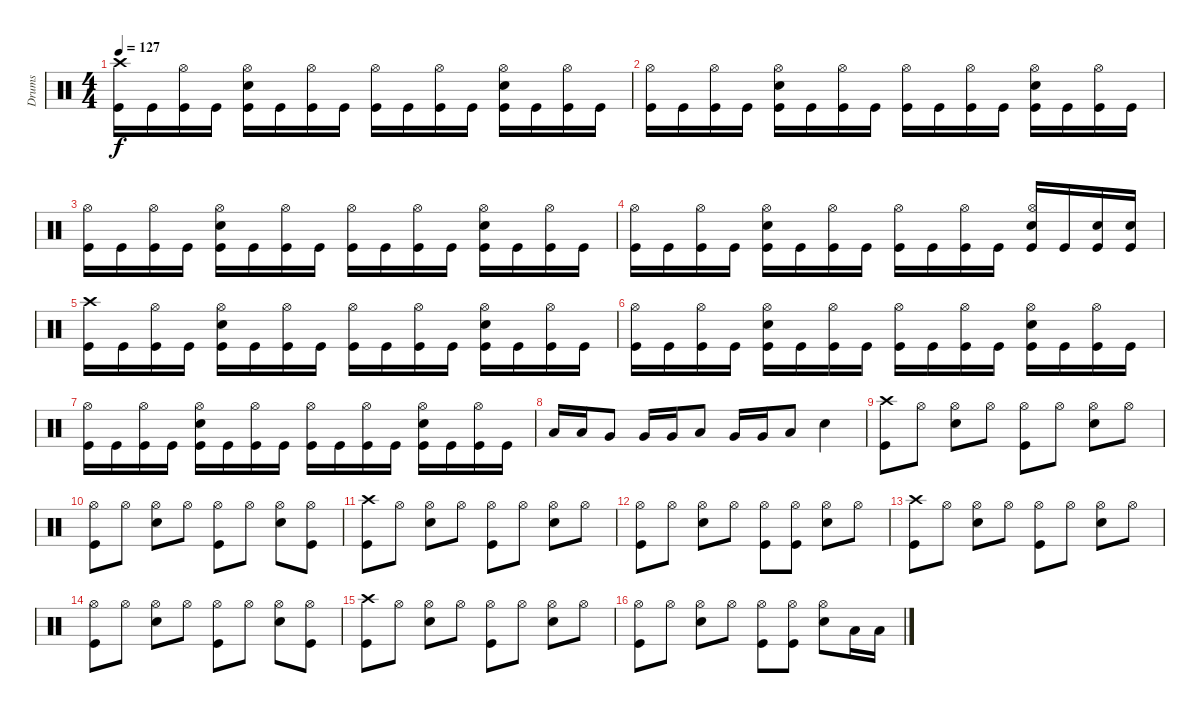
\track ("Drums" "Drums") {instrument percussion}
\staff {score}
\articulation defaults
\ts (4 4)
\tempo 127
\clef neutral
\ks c
("Crash high (hit)" "Kick (hit)").16{dy f} "Kick (hit)".16 ("Hi-Hat (open)" "Kick (hit)").16 "Kick (hit)".16 ("Hi-Hat (open)" "Snare (hit) 2" "Kick (hit)").16 "Kick (hit)".16 ("Hi-Hat (open)" "Kick (hit)").16 "Kick (hit)".16 ("Hi-Hat (open)" "Kick (hit)").16 "Kick (hit)".16 ("Hi-Hat (open)" "Kick (hit)").16 "Kick (hit)".16 ("Hi-Hat (open)" "Snare (hit) 2" "Kick (hit)").16 "Kick (hit)".16 ("Hi-Hat (open)" "Kick (hit)").16 "Kick (hit)".16 |
("Hi-Hat (open)" "Kick (hit)").16 "Kick (hit)".16 ("Hi-Hat (open)" "Kick (hit)").16 "Kick (hit)".16 ("Hi-Hat (open)" "Snare (hit) 2" "Kick (hit)").16 "Kick (hit)".16 ("Hi-Hat (open)" "Kick (hit)").16 "Kick (hit)".16 ("Hi-Hat (open)" "Kick (hit)").16 "Kick (hit)".16 ("Hi-Hat (open)" "Kick (hit)").16 "Kick (hit)".16 ("Hi-Hat (open)" "Snare (hit) 2" "Kick (hit)").16 "Kick (hit)".16 ("Hi-Hat (open)" "Kick (hit)").16 "Kick (hit)".16 |
("Hi-Hat (open)" "Kick (hit)").16 "Kick (hit)".16 ("Hi-Hat (open)" "Kick (hit)").16 "Kick (hit)".16 ("Hi-Hat (open)" "Snare (hit) 2" "Kick (hit)").16 "Kick (hit)".16 ("Hi-Hat (open)" "Kick (hit)").16 "Kick (hit)".16 ("Hi-Hat (open)" "Kick (hit)").16 "Kick (hit)".16 ("Hi-Hat (open)" "Kick (hit)").16 "Kick (hit)".16 ("Hi-Hat (open)" "Snare (hit) 2" "Kick (hit)").16 "Kick (hit)".16 ("Hi-Hat (open)" "Kick (hit)").16 "Kick (hit)".16 |
("Hi-Hat (open)" "Kick (hit)").16 "Kick (hit)".16 ("Hi-Hat (open)" "Kick (hit)").16 "Kick (hit)".16 ("Hi-Hat (open)" "Snare (hit) 2" "Kick (hit)").16 "Kick (hit)".16 ("Hi-Hat (open)" "Kick (hit)").16 "Kick (hit)".16 ("Hi-Hat (open)" "Kick (hit)").16 "Kick (hit)".16 ("Hi-Hat (open)" "Kick (hit)").16 "Kick (hit)".16 ("Hi-Hat (open)" "Snare (hit) 2" "Kick (hit)").16 "Kick (hit)".16 ("Snare (hit) 2" "Kick (hit)").16 ("Snare (hit) 2" "Kick (hit)").16 |
("Crash high (hit)" "Kick (hit)").16 "Kick (hit)".16 ("Hi-Hat (open)" "Kick (hit)").16 "Kick (hit)".16 ("Hi-Hat (open)" "Snare (hit) 2" "Kick (hit)").16 "Kick (hit)".16 ("Hi-Hat (open)" "Kick (hit)").16 "Kick (hit)".16 ("Hi-Hat (open)" "Kick (hit)").16 "Kick (hit)".16 ("Hi-Hat (open)" "Kick (hit)").16 "Kick (hit)".16 ("Hi-Hat (open)" "Snare (hit) 2" "Kick (hit)").16 "Kick (hit)".16 ("Hi-Hat (open)" "Kick (hit)").16 "Kick (hit)".16 |
("Hi-Hat (open)" "Kick (hit)").16 "Kick (hit)".16 ("Hi-Hat (open)" "Kick (hit)").16 "Kick (hit)".16 ("Hi-Hat (open)" "Snare (hit) 2" "Kick (hit)").16 "Kick (hit)".16 ("Hi-Hat (open)" "Kick (hit)").16 "Kick (hit)".16 ("Hi-Hat (open)" "Kick (hit)").16 "Kick (hit)".16 ("Hi-Hat (open)" "Kick (hit)").16 "Kick (hit)".16 ("Hi-Hat (open)" "Snare (hit) 2" "Kick (hit)").16 "Kick (hit)".16 ("Hi-Hat (open)" "Kick (hit)").16 "Kick (hit)".16 |
("Hi-Hat (open)" "Kick (hit)").16 "Kick (hit)".16 ("Hi-Hat (open)" "Kick (hit)").16 "Kick (hit)".16 ("Hi-Hat (open)" "Snare (hit) 2" "Kick (hit)").16 "Kick (hit)".16 ("Hi-Hat (open)" "Kick (hit)").16 "Kick (hit)".16 ("Hi-Hat (open)" "Kick (hit)").16 "Kick (hit)".16 ("Hi-Hat (open)" "Kick (hit)").16 "Kick (hit)".16 ("Hi-Hat (open)" "Snare (hit) 2" "Kick (hit)").16 "Kick (hit)".16 ("Hi-Hat (open)" "Kick (hit)").16 "Kick (hit)".16 |
"Low Tom (hit)".16 "Low Tom (hit)".16 "Very Low Tom (hit)".8 "Very Low Tom (hit)".16 "Very Low Tom (hit)".16 "Low Floor Tom (hit)".8 "Very Low Tom (hit)".16 "Very Low Tom (hit)".16 "Low Floor Tom (hit)".8 "Snare (hit) 2".4 |
("Crash high (hit)" "Kick (hit)").8 "Hi-Hat (open)".8 ("Hi-Hat (open)" "Snare (hit) 2").8 "Hi-Hat (open)".8 ("Hi-Hat (open)" "Kick (hit)").8 "Hi-Hat (open)".8 ("Hi-Hat (open)" "Snare (hit) 2").8 "Hi-Hat (open)".8 |
("Hi-Hat (open)" "Kick (hit)").8 "Hi-Hat (open)".8 ("Hi-Hat (open)" "Snare (hit) 2").8 "Hi-Hat (open)".8 ("Hi-Hat (open)" "Kick (hit)").8 "Hi-Hat (open)".8 ("Hi-Hat (open)" "Snare (hit) 2").8 ("Hi-Hat (open)" "Kick (hit)").8 |
("Crash high (hit)" "Kick (hit)").8 "Hi-Hat (open)".8 ("Hi-Hat (open)" "Snare (hit) 2").8 "Hi-Hat (open)".8 ("Hi-Hat (open)" "Kick (hit)").8 "Hi-Hat (open)".8 ("Hi-Hat (open)" "Snare (hit) 2").8 "Hi-Hat (open)".8 |
("Hi-Hat (open)" "Kick (hit)").8 "Hi-Hat (open)".8 ("Hi-Hat (open)" "Snare (hit) 2").8 "Hi-Hat (open)".8 ("Hi-Hat (open)" "Kick (hit)").8 ("Hi-Hat (open)" "Kick (hit)").8 ("Hi-Hat (open)" "Snare (hit) 2").8 "Hi-Hat (open)".8 |
("Crash high (hit)" "Kick (hit)").8 "Hi-Hat (open)".8 ("Hi-Hat (open)" "Snare (hit) 2").8 "Hi-Hat (open)".8 ("Hi-Hat (open)" "Kick (hit)").8 "Hi-Hat (open)".8 ("Hi-Hat (open)" "Snare (hit) 2").8 "Hi-Hat (open)".8 |
("Hi-Hat (open)" "Kick (hit)").8 "Hi-Hat (open)".8 ("Hi-Hat (open)" "Snare (hit) 2").8 "Hi-Hat (open)".8 ("Hi-Hat (open)" "Kick (hit)").8 "Hi-Hat (open)".8 ("Hi-Hat (open)" "Snare (hit) 2").8 ("Hi-Hat (open)" "Kick (hit)").8 |
("Crash high (hit)" "Kick (hit)").8 "Hi-Hat (open)".8 ("Hi-Hat (open)" "Snare (hit) 2").8 "Hi-Hat (open)".8 ("Hi-Hat (open)" "Kick (hit)").8 "Hi-Hat (open)".8 ("Hi-Hat (open)" "Snare (hit) 2").8 "Hi-Hat (open)".8 |
("Hi-Hat (open)" "Kick (hit)").8 "Hi-Hat (open)".8 ("Hi-Hat (open)" "Snare (hit) 2").8 "Hi-Hat (open)".8 ("Hi-Hat (open)" "Kick (hit)").8 ("Hi-Hat (open)" "Kick (hit)").8 ("Hi-Hat (open)" "Snare (hit) 2").8 "Low Floor Tom (hit)".16 "Low Floor Tom (hit)".16
